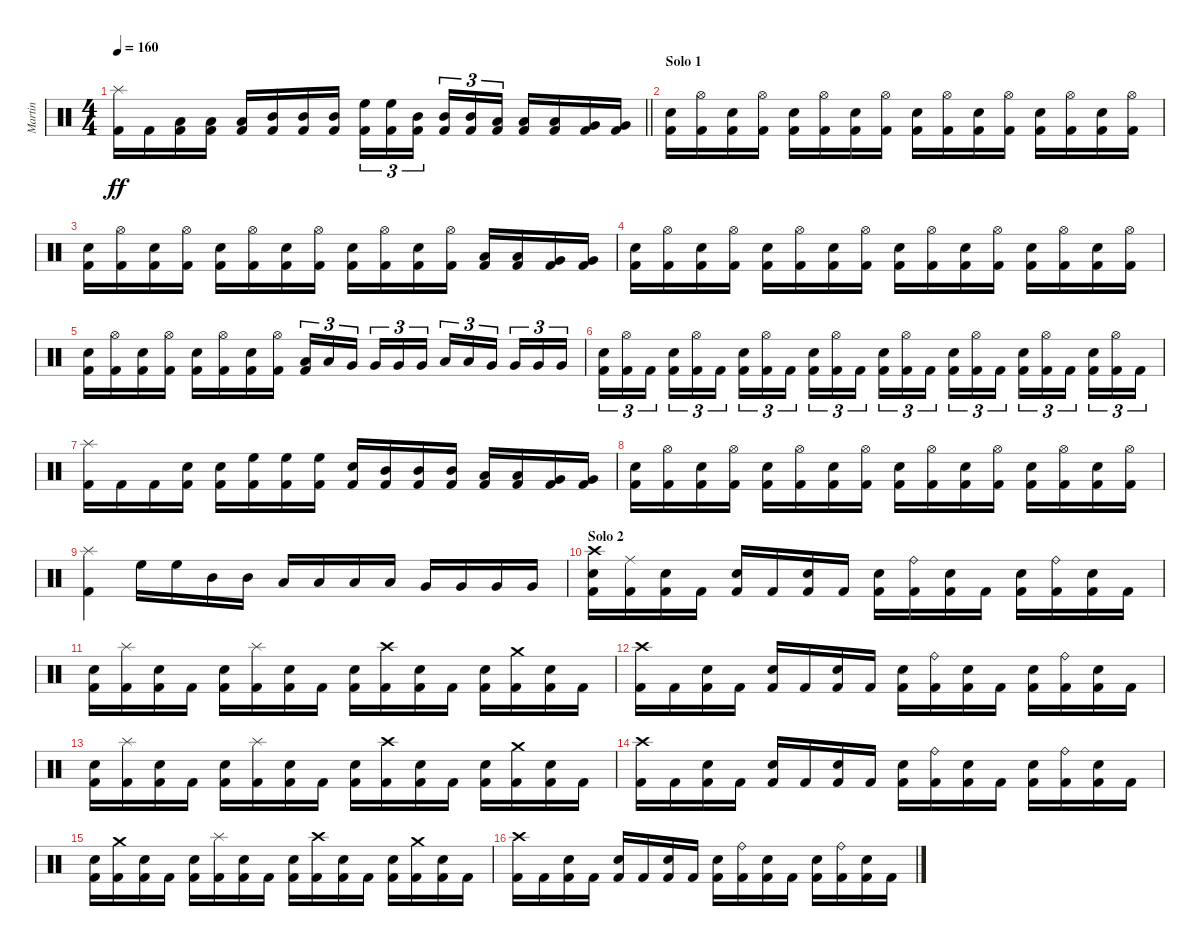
\track ("Martin" "Martin") {instrument percussion}
\staff {score}
\articulation defaults
\ts (4 4)
\tempo 160
\clef neutral
\barLineRight lightlight
\ks c
("Splash (hit)" "Kick (hit) 2").16{dy ff} "Kick (hit) 2".16 ("Low Tom (hit)" "Kick (hit) 2").16 ("Low Tom (hit)" "Kick (hit) 2").16 ("Low Tom (hit)" "Kick (hit) 2").16 ("Mid Tom (hit)" "Kick (hit) 2").16 ("Mid Tom (hit)" "Kick (hit) 2").16 ("Mid Tom (hit)" "Kick (hit) 2").16 ("High Floor Tom (hit)" "Kick (hit) 2").16{tu (3 2)} ("High Floor Tom (hit)" "Kick (hit) 2").16{tu (3 2)} ("Mid Tom (hit)" "Kick (hit) 2").16{tu (3 2) beam splitsecondary} ("Mid Tom (hit)" "Kick (hit) 2").16{tu (3 2)} ("Mid Tom (hit)" "Kick (hit) 2").16{tu (3 2)} ("Low Tom (hit)" "Kick (hit) 2").16{tu (3 2)} ("Low Tom (hit)" "Kick (hit) 2").16 ("Low Tom (hit)" "Kick (hit) 2").16 ("Very Low Tom (hit)" "Kick (hit) 2").16 ("Very Low Tom (hit)" "Kick (hit) 2").16 |
\section ("" "Solo 1")
("Electric Snare (hit)" "Kick (hit) 2").16 ("Hi-Hat (open)" "Kick (hit) 2").16 ("Electric Snare (hit)" "Kick (hit) 2").16 ("Hi-Hat (open)" "Kick (hit) 2").16 ("Electric Snare (hit)" "Kick (hit) 2").16 ("Hi-Hat (open)" "Kick (hit) 2").16 ("Electric Snare (hit)" "Kick (hit) 2").16 ("Hi-Hat (open)" "Kick (hit) 2").16 ("Electric Snare (hit)" "Kick (hit) 2").16 ("Hi-Hat (open)" "Kick (hit) 2").16 ("Electric Snare (hit)" "Kick (hit) 2").16 ("Hi-Hat (open)" "Kick (hit) 2").16 ("Electric Snare (hit)" "Kick (hit) 2").16 ("Hi-Hat (open)" "Kick (hit) 2").16 ("Electric Snare (hit)" "Kick (hit) 2").16 ("Hi-Hat (open)" "Kick (hit) 2").16 |
("Electric Snare (hit)" "Kick (hit) 2").16 ("Hi-Hat (open)" "Kick (hit) 2").16 ("Electric Snare (hit)" "Kick (hit) 2").16 ("Hi-Hat (open)" "Kick (hit) 2").16 ("Electric Snare (hit)" "Kick (hit) 2").16 ("Hi-Hat (open)" "Kick (hit) 2").16 ("Electric Snare (hit)" "Kick (hit) 2").16 ("Hi-Hat (open)" "Kick (hit) 2").16 ("Electric Snare (hit)" "Kick (hit) 2").16 ("Hi-Hat (open)" "Kick (hit) 2").16 ("Electric Snare (hit)" "Kick (hit) 2").16 ("Hi-Hat (open)" "Kick (hit) 2").16 ("Low Tom (hit)" "Kick (hit) 2").16 ("Low Tom (hit)" "Kick (hit) 2").16 ("Very Low Tom (hit)" "Kick (hit) 2").16 ("Very Low Tom (hit)" "Kick (hit) 2").16 |
("Electric Snare (hit)" "Kick (hit) 2").16 ("Hi-Hat (open)" "Kick (hit) 2").16 ("Electric Snare (hit)" "Kick (hit) 2").16 ("Hi-Hat (open)" "Kick (hit) 2").16 ("Electric Snare (hit)" "Kick (hit) 2").16 ("Hi-Hat (open)" "Kick (hit) 2").16 ("Electric Snare (hit)" "Kick (hit) 2").16 ("Hi-Hat (open)" "Kick (hit) 2").16 ("Electric Snare (hit)" "Kick (hit) 2").16 ("Hi-Hat (open)" "Kick (hit) 2").16 ("Electric Snare (hit)" "Kick (hit) 2").16 ("Hi-Hat (open)" "Kick (hit) 2").16 ("Electric Snare (hit)" "Kick (hit) 2").16 ("Hi-Hat (open)" "Kick (hit) 2").16 ("Electric Snare (hit)" "Kick (hit) 2").16 ("Hi-Hat (open)" "Kick (hit) 2").16 |
("Electric Snare (hit)" "Kick (hit) 2").16 ("Hi-Hat (open)" "Kick (hit) 2").16 ("Electric Snare (hit)" "Kick (hit) 2").16 ("Hi-Hat (open)" "Kick (hit) 2").16 ("Electric Snare (hit)" "Kick (hit) 2").16 ("Hi-Hat (open)" "Kick (hit) 2").16 ("Electric Snare (hit)" "Kick (hit) 2").16 ("Hi-Hat (open)" "Kick (hit) 2").16 ("Low Tom (hit)" "Kick (hit) 2").16{tu (3 2)} "Low Tom (hit)".16{tu (3 2)} "Very Low Tom (hit)".16{tu (3 2) beam splitsecondary} "Very Low Tom (hit)".16{tu (3 2)} "Very Low Tom (hit)".16{tu (3 2)} "Very Low Tom (hit)".16{tu (3 2)} "Low Tom (hit)".16{tu (3 2)} "Low Tom (hit)".16{tu (3 2)} "Very Low Tom (hit)".16{tu (3 2) beam splitsecondary} "Very Low Tom (hit)".16{tu (3 2)} "Very Low Tom (hit)".16{tu (3 2)} "Very Low Tom (hit)".16{tu (3 2)} |
("Electric Snare (hit)" "Kick (hit) 2").16{tu (3 2)} ("Hi-Hat (open)" "Kick (hit) 2").16{tu (3 2)} "Kick (hit) 2".16{tu (3 2) beam splitsecondary} ("Electric Snare (hit)" "Kick (hit) 2").16{tu (3 2)} ("Hi-Hat (open)" "Kick (hit) 2").16{tu (3 2)} "Kick (hit) 2".16{tu (3 2)} ("Electric Snare (hit)" "Kick (hit) 2").16{tu (3 2)} ("Hi-Hat (open)" "Kick (hit) 2").16{tu (3 2)} "Kick (hit) 2".16{tu (3 2) beam splitsecondary} ("Electric Snare (hit)" "Kick (hit) 2").16{tu (3 2)} ("Hi-Hat (open)" "Kick (hit) 2").16{tu (3 2)} "Kick (hit) 2".16{tu (3 2)} ("Electric Snare (hit)" "Kick (hit) 2").16{tu (3 2)} ("Hi-Hat (open)" "Kick (hit) 2").16{tu (3 2)} "Kick (hit) 2".16{tu (3 2) beam splitsecondary} ("Electric Snare (hit)" "Kick (hit) 2").16{tu (3 2)} ("Hi-Hat (open)" "Kick (hit) 2").16{tu (3 2)} "Kick (hit) 2".16{tu (3 2)} ("Electric Snare (hit)" "Kick (hit) 2").16{tu (3 2)} ("Hi-Hat (open)" "Kick (hit) 2").16{tu (3 2)} "Kick (hit) 2".16{tu (3 2) beam splitsecondary} ("Electric Snare (hit)" "Kick (hit) 2").16{tu (3 2)} ("Hi-Hat (open)" "Kick (hit) 2").16{tu (3 2)} "Kick (hit) 2".16{tu (3 2)} |
("Splash (hit)" "Kick (hit) 2").16 "Kick (hit) 2".16 "Kick (hit) 2".16 ("Electric Snare (hit)" "Kick (hit) 2").16 ("Electric Snare (hit)" "Kick (hit) 2").16 ("High Floor Tom (hit)" "Kick (hit) 2").16 ("High Floor Tom (hit)" "Kick (hit) 2").16 ("High Floor Tom (hit)" "Kick (hit) 2").16 ("Electric Snare (hit)" "Kick (hit) 2").16 ("Mid Tom (hit)" "Kick (hit) 2").16 ("Mid Tom (hit)" "Kick (hit) 2").16 ("Mid Tom (hit)" "Kick (hit) 2").16 ("Low Tom (hit)" "Kick (hit) 2").16 ("Low Tom (hit)" "Kick (hit) 2").16 ("Very Low Tom (hit)" "Kick (hit) 2").16 ("Very Low Tom (hit)" "Kick (hit) 2").16 |
("Electric Snare (hit)" "Kick (hit) 2").16 ("Hi-Hat (open)" "Kick (hit) 2").16 ("Electric Snare (hit)" "Kick (hit) 2").16 ("Hi-Hat (open)" "Kick (hit) 2").16 ("Electric Snare (hit)" "Kick (hit) 2").16 ("Hi-Hat (open)" "Kick (hit) 2").16 ("Electric Snare (hit)" "Kick (hit) 2").16 ("Hi-Hat (open)" "Kick (hit) 2").16 ("Electric Snare (hit)" "Kick (hit) 2").16 ("Hi-Hat (open)" "Kick (hit) 2").16 ("Electric Snare (hit)" "Kick (hit) 2").16 ("Hi-Hat (open)" "Kick (hit) 2").16 ("Electric Snare (hit)" "Kick (hit) 2").16 ("Hi-Hat (open)" "Kick (hit) 2").16 ("Electric Snare (hit)" "Kick (hit) 2").16 ("Hi-Hat (open)" "Kick (hit) 2").16 |
("Splash (hit)" "Kick (hit) 2").4 "High Floor Tom (hit)".16 "High Floor Tom (hit)".16 "Mid Tom (hit)".16 "Mid Tom (hit)".16 "Low Tom (hit)".16 "Low Tom (hit)".16 "Low Tom (hit)".16 "Low Tom (hit)".16 "Very Low Tom (hit)".16 "Very Low Tom (hit)".16 "Very Low Tom (hit)".16 "Very Low Tom (hit)".16 |
\section ("" "Solo 2")
("Crash high (hit)" "Electric Snare (hit)" "Kick (hit) 2").16 ("Ride (middle)" "Kick (hit) 2").16 ("Electric Snare (hit)" "Kick (hit) 2").16 "Kick (hit) 2".16 ("Electric Snare (hit)" "Kick (hit) 2").16 "Kick (hit) 2".16 ("Electric Snare (hit)" "Kick (hit) 2").16 "Kick (hit) 2".16 ("Electric Snare (hit)" "Kick (hit) 2").16 ("Ride (bell)" "Kick (hit) 2").16 ("Electric Snare (hit)" "Kick (hit) 2").16 "Kick (hit) 2".16 ("Electric Snare (hit)" "Kick (hit) 2").16 ("Ride (bell)" "Kick (hit) 2").16 ("Electric Snare (hit)" "Kick (hit) 2").16 "Kick (hit) 2".16 |
("Electric Snare (hit)" "Kick (hit) 2").16 ("Splash (hit)" "Kick (hit) 2").16 ("Electric Snare (hit)" "Kick (hit) 2").16 "Kick (hit) 2".16 ("Electric Snare (hit)" "Kick (hit) 2").16 ("Splash (hit)" "Kick (hit) 2").16 ("Electric Snare (hit)" "Kick (hit) 2").16 "Kick (hit) 2".16 ("Electric Snare (hit)" "Kick (hit) 2").16 ("Crash high (hit)" "Kick (hit) 2").16 ("Electric Snare (hit)" "Kick (hit) 2").16 "Kick (hit) 2".16 ("Electric Snare (hit)" "Kick (hit) 2").16 ("Crash medium (hit)" "Kick (hit) 2").16 ("Electric Snare (hit)" "Kick (hit) 2").16 "Kick (hit) 2".16 |
("Crash high (hit)" "Kick (hit) 2").16 "Kick (hit) 2".16 ("Electric Snare (hit)" "Kick (hit) 2").16 "Kick (hit) 2".16 ("Electric Snare (hit)" "Kick (hit) 2").16 "Kick (hit) 2".16 ("Electric Snare (hit)" "Kick (hit) 2").16 "Kick (hit) 2".16 ("Electric Snare (hit)" "Kick (hit) 2").16 ("Ride (bell)" "Kick (hit) 2").16 ("Electric Snare (hit)" "Kick (hit) 2").16 "Kick (hit) 2".16 ("Electric Snare (hit)" "Kick (hit) 2").16 ("Ride (bell)" "Kick (hit) 2").16 ("Electric Snare (hit)" "Kick (hit) 2").16 "Kick (hit) 2".16 |
("Electric Snare (hit)" "Kick (hit) 2").16 ("Splash (hit)" "Kick (hit) 2").16 ("Electric Snare (hit)" "Kick (hit) 2").16 "Kick (hit) 2".16 ("Electric Snare (hit)" "Kick (hit) 2").16 ("Splash (hit)" "Kick (hit) 2").16 ("Electric Snare (hit)" "Kick (hit) 2").16 "Kick (hit) 2".16 ("Electric Snare (hit)" "Kick (hit) 2").16 ("Crash high (hit)" "Kick (hit) 2").16 ("Electric Snare (hit)" "Kick (hit) 2").16 "Kick (hit) 2".16 ("Electric Snare (hit)" "Kick (hit) 2").16 ("Crash medium (hit)" "Kick (hit) 2").16 ("Electric Snare (hit)" "Kick (hit) 2").16 "Kick (hit) 2".16 |
("Crash high (hit)" "Kick (hit) 2").16 "Kick (hit) 2".16 ("Electric Snare (hit)" "Kick (hit) 2").16 "Kick (hit) 2".16 ("Electric Snare (hit)" "Kick (hit) 2").16 "Kick (hit) 2".16 ("Electric Snare (hit)" "Kick (hit) 2").16 "Kick (hit) 2".16 ("Electric Snare (hit)" "Kick (hit) 2").16 ("Ride (bell)" "Kick (hit) 2").16 ("Electric Snare (hit)" "Kick (hit) 2").16 "Kick (hit) 2".16 ("Electric Snare (hit)" "Kick (hit) 2").16 ("Ride (bell)" "Kick (hit) 2").16 ("Electric Snare (hit)" "Kick (hit) 2").16 "Kick (hit) 2".16 |
("Electric Snare (hit)" "Kick (hit) 2").16 ("Crash medium (hit)" "Kick (hit) 2").16 ("Electric Snare (hit)" "Kick (hit) 2").16 "Kick (hit) 2".16 ("Electric Snare (hit)" "Kick (hit) 2").16 ("Splash (hit)" "Kick (hit) 2").16 ("Electric Snare (hit)" "Kick (hit) 2").16 "Kick (hit) 2".16 ("Electric Snare (hit)" "Kick (hit) 2").16 ("Crash high (hit)" "Kick (hit) 2").16 ("Electric Snare (hit)" "Kick (hit) 2").16 "Kick (hit) 2".16 ("Electric Snare (hit)" "Kick (hit) 2").16 ("Crash medium (hit)" "Kick (hit) 2").16 ("Electric Snare (hit)" "Kick (hit) 2").16 "Kick (hit) 2".16 |
("Crash high (hit)" "Kick (hit) 2").16 "Kick (hit) 2".16 ("Electric Snare (hit)" "Kick (hit) 2").16 "Kick (hit) 2".16 ("Electric Snare (hit)" "Kick (hit) 2").16 "Kick (hit) 2".16 ("Electric Snare (hit)" "Kick (hit) 2").16 "Kick (hit) 2".16 ("Electric Snare (hit)" "Kick (hit) 2").16 ("Ride (bell)" "Kick (hit) 2").16 ("Electric Snare (hit)" "Kick (hit) 2").16 "Kick (hit) 2".16 ("Electric Snare (hit)" "Kick (hit) 2").16 ("Ride (bell)" "Kick (hit) 2").16 ("Electric Snare (hit)" "Kick (hit) 2").16 "Kick (hit) 2".16
